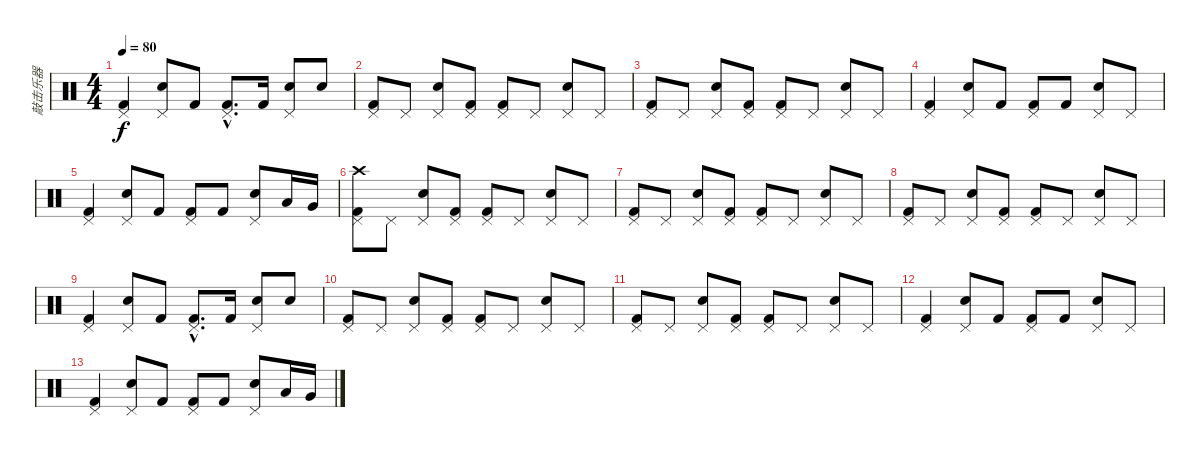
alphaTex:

\track ("敲击乐器" "敲击乐器") {instrument percussion}
\staff {score}
\articulation defaults
\ts (4 4)
\tempo 80
\clef neutral
\ks c
("Pedal Hi-Hat (hit)" "Kick (hit) 2").4{dy f} ("Pedal Hi-Hat (hit)" "Metronome (bell)").8 "Kick (hit) 2".8 ("Pedal Hi-Hat (hit)"{hac} "Kick (hit) 2"{hac}).8{d} "Kick (hit) 2".16 ("Pedal Hi-Hat (hit)" "Metronome (bell)").8 "Metronome (bell)".8 |
("Pedal Hi-Hat (hit)" "Kick (hit) 2").8 "Pedal Hi-Hat (hit)".8 ("Pedal Hi-Hat (hit)" "Metronome (bell)").8 ("Pedal Hi-Hat (hit)" "Kick (hit) 2").8 ("Pedal Hi-Hat (hit)" "Kick (hit) 2").8 "Pedal Hi-Hat (hit)".8 ("Pedal Hi-Hat (hit)" "Metronome (bell)").8 "Pedal Hi-Hat (hit)".8 |
("Pedal Hi-Hat (hit)" "Kick (hit) 2").8 "Pedal Hi-Hat (hit)".8 ("Pedal Hi-Hat (hit)" "Metronome (bell)").8 ("Pedal Hi-Hat (hit)" "Kick (hit) 2").8 ("Pedal Hi-Hat (hit)" "Kick (hit) 2").8 "Pedal Hi-Hat (hit)".8 ("Pedal Hi-Hat (hit)" "Metronome (bell)").8 "Pedal Hi-Hat (hit)".8 |
("Pedal Hi-Hat (hit)" "Kick (hit) 2").4 ("Pedal Hi-Hat (hit)" "Metronome (bell)").8 "Kick (hit) 2".8 ("Pedal Hi-Hat (hit)" "Kick (hit) 2").8 "Kick (hit) 2".8 ("Pedal Hi-Hat (hit)" "Metronome (bell)").8 "Pedal Hi-Hat (hit)".8 |
("Pedal Hi-Hat (hit)" "Kick (hit) 2").4 ("Pedal Hi-Hat (hit)" "Metronome (bell)").8 "Kick (hit) 2".8 ("Pedal Hi-Hat (hit)" "Kick (hit) 2").8 "Kick (hit) 2".8 ("Pedal Hi-Hat (hit)" "Metronome (bell)").8 "Low Tom (hit)".16 "Very Low Tom (hit)".16 |
("Crash high (hit)" "Pedal Hi-Hat (hit)" "Kick (hit) 2").8 "Pedal Hi-Hat (hit)".8 ("Pedal Hi-Hat (hit)" "Metronome (bell)").8 ("Pedal Hi-Hat (hit)" "Kick (hit) 2").8 ("Pedal Hi-Hat (hit)" "Kick (hit) 2").8 "Pedal Hi-Hat (hit)".8 ("Pedal Hi-Hat (hit)" "Metronome (bell)").8 "Pedal Hi-Hat (hit)".8 |
("Pedal Hi-Hat (hit)" "Kick (hit) 2").8 "Pedal Hi-Hat (hit)".8 ("Pedal Hi-Hat (hit)" "Metronome (bell)").8 ("Pedal Hi-Hat (hit)" "Kick (hit) 2").8 ("Pedal Hi-Hat (hit)" "Kick (hit) 2").8 "Pedal Hi-Hat (hit)".8 ("Pedal Hi-Hat (hit)" "Metronome (bell)").8 "Pedal Hi-Hat (hit)".8 |
("Pedal Hi-Hat (hit)" "Kick (hit) 2").8 "Pedal Hi-Hat (hit)".8 ("Pedal Hi-Hat (hit)" "Metronome (bell)").8 ("Pedal Hi-Hat (hit)" "Kick (hit) 2").8 ("Pedal Hi-Hat (hit)" "Kick (hit) 2").8 "Pedal Hi-Hat (hit)".8 ("Pedal Hi-Hat (hit)" "Metronome (bell)").8 "Pedal Hi-Hat (hit)".8 |
("Pedal Hi-Hat (hit)" "Kick (hit) 2").4 ("Pedal Hi-Hat (hit)" "Metronome (bell)").8 "Kick (hit) 2".8 ("Pedal Hi-Hat (hit)"{hac} "Kick (hit) 2"{hac}).8{d} "Kick (hit) 2".16 ("Pedal Hi-Hat (hit)" "Metronome (bell)").8 "Metronome (bell)".8 |
("Pedal Hi-Hat (hit)" "Kick (hit) 2").8 "Pedal Hi-Hat (hit)".8 ("Pedal Hi-Hat (hit)" "Metronome (bell)").8 ("Pedal Hi-Hat (hit)" "Kick (hit) 2").8 ("Pedal Hi-Hat (hit)" "Kick (hit) 2").8 "Pedal Hi-Hat (hit)".8 ("Pedal Hi-Hat (hit)" "Metronome (bell)").8 "Pedal Hi-Hat (hit)".8 |
("Pedal Hi-Hat (hit)" "Kick (hit) 2").8 "Pedal Hi-Hat (hit)".8 ("Pedal Hi-Hat (hit)" "Metronome (bell)").8 ("Pedal Hi-Hat (hit)" "Kick (hit) 2").8 ("Pedal Hi-Hat (hit)" "Kick (hit) 2").8 "Pedal Hi-Hat (hit)".8 ("Pedal Hi-Hat (hit)" "Metronome (bell)").8 "Pedal Hi-Hat (hit)".8 |
("Pedal Hi-Hat (hit)" "Kick (hit) 2").4 ("Pedal Hi-Hat (hit)" "Metronome (bell)").8 "Kick (hit) 2".8 ("Pedal Hi-Hat (hit)" "Kick (hit) 2").8 "Kick (hit) 2".8 ("Pedal Hi-Hat (hit)" "Metronome (bell)").8 "Pedal Hi-Hat (hit)".8 |
("Pedal Hi-Hat (hit)" "Kick (hit) 2").4 ("Pedal Hi-Hat (hit)" "Metronome (bell)").8 "Kick (hit) 2".8 ("Pedal Hi-Hat (hit)" "Kick (hit) 2").8 "Kick (hit) 2".8 ("Pedal Hi-Hat (hit)" "Metronome (bell)").8 "Low Tom (hit)".16 "Very Low Tom (hit)".16
